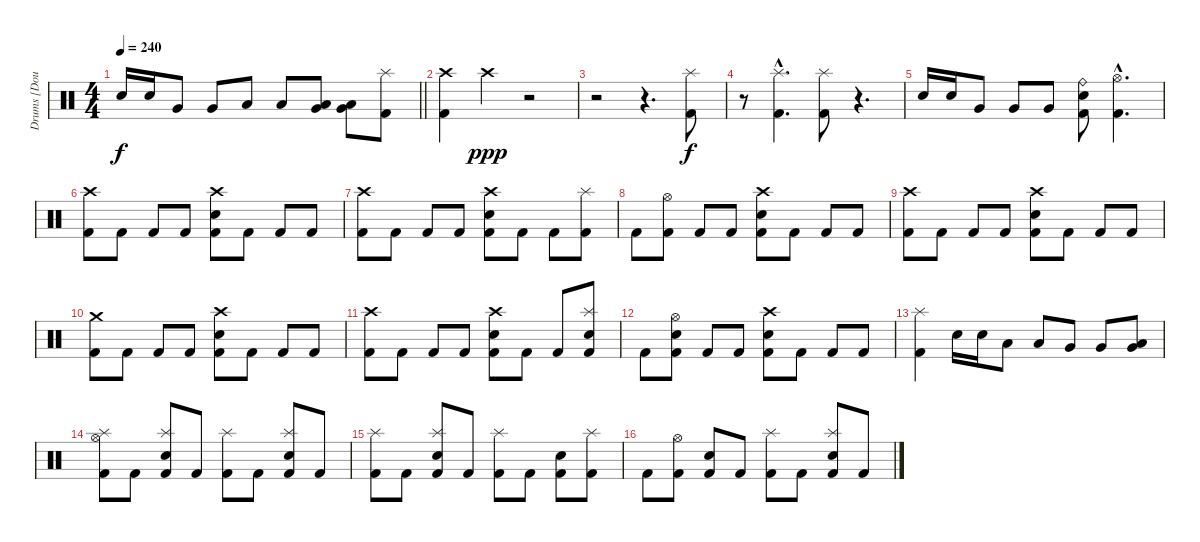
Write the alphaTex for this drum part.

\track ("Drums [Doug Anderson]" "Drums [Dou") {instrument percussion}
\staff {score}
\articulation defaults
\ts (4 4)
\tempo 240
\clef neutral
\barLineRight lightlight
\ks aminor "Electric Snare (hit)".16{dy f} "Electric Snare (hit)".16 "Very Low Tom (hit)".8 "Very Low Tom (hit)".8 "Low Tom (hit)".8 "Low Tom (hit)".8
("Very Low Tom (hit)" "Low Tom (hit)").8 ("Very Low Tom (hit)" "Low Tom (hit)").8 ("Splash (hit)" "Kick (hit) 2").8 |
("Crash high (hit)" "Kick (hit) 2").4 "Crash high (hit)".4{dy ppp} r.2 |
r.2 r.4{d} ("Splash (hit)" "Kick (hit) 2").8{dy f} |
r.8 ("Splash (hit)"{hac} "Kick (hit) 2"{hac}).4{d} ("Splash (hit)" "Kick (hit) 2").8 r.4{d} |
"Electric Snare (hit)".16 "Electric Snare (hit)".16 "Very Low Tom (hit)".8 "Very Low Tom (hit)".8 "Very Low Tom (hit)".8 ("Ride (bell)" "Electric Snare (hit)" "Kick (hit) 2").8 ("Hi-Hat (open)"{hac} "Kick (hit) 2"{hac}).4{d} |
("Crash high (hit)" "Kick (hit) 2").8 "Kick (hit) 2".8 "Kick (hit) 2".8 "Kick (hit) 2".8 ("Crash high (hit)" "Electric Snare (hit)" "Kick (hit) 2").8 "Kick (hit) 2".8 "Kick (hit) 2".8 "Kick (hit) 2".8 |
("Crash high (hit)" "Kick (hit) 2").8 "Kick (hit) 2".8 "Kick (hit) 2".8 "Kick (hit) 2".8 ("Crash high (hit)" "Electric Snare (hit)" "Kick (hit) 2").8 "Kick (hit) 2".8 "Kick (hit) 2".8 ("Splash (hit)" "Kick (hit) 2").8 |
"Kick (hit) 2".8 ("Hi-Hat (open)" "Kick (hit) 2").8 "Kick (hit) 2".8 "Kick (hit) 2".8 ("Crash high (hit)" "Electric Snare (hit)" "Kick (hit) 2").8 "Kick (hit) 2".8 "Kick (hit) 2".8 "Kick (hit) 2".8 |
("Crash high (hit)" "Kick (hit) 2").8 "Kick (hit) 2".8 "Kick (hit) 2".8 "Kick (hit) 2".8 ("Crash high (hit)" "Electric Snare (hit)" "Kick (hit) 2").8 "Kick (hit) 2".8 "Kick (hit) 2".8 "Kick (hit) 2".8 |
("Crash medium (hit)" "Kick (hit) 2").8 "Kick (hit) 2".8 "Kick (hit) 2".8 "Kick (hit) 2".8 ("Crash high (hit)" "Electric Snare (hit)" "Kick (hit) 2").8 "Kick (hit) 2".8 "Kick (hit) 2".8 "Kick (hit) 2".8 |
("Crash high (hit)" "Kick (hit) 2").8 "Kick (hit) 2".8 "Kick (hit) 2".8 "Kick (hit) 2".8 ("Crash high (hit)" "Electric Snare (hit)" "Kick (hit) 2").8 "Kick (hit) 2".8 "Kick (hit) 2".8 ("Splash (hit)" "Electric Snare (hit)" "Kick (hit) 2").8 |
"Kick (hit) 2".8 ("Hi-Hat (open)" "Electric Snare (hit)" "Kick (hit) 2").8 "Kick (hit) 2".8 "Kick (hit) 2".8 ("Crash high (hit)" "Electric Snare (hit)" "Kick (hit) 2").8 "Kick (hit) 2".8 "Kick (hit) 2".8 "Kick (hit) 2".8 |
("Splash (hit)" "Kick (hit) 2").4 "Electric Snare (hit)".16 "Electric Snare (hit)".16 "Low Tom (hit)".8 "Low Tom (hit)".8 "Very Low Tom (hit)".8 "Very Low Tom (hit)".8 ("Very Low Tom (hit)" "Low Floor Tom (hit)").8 |
("Splash (hit)" "Hi-Hat (open)" "Kick (hit) 2").8 "Kick (hit) 2".8 ("Splash (hit)" "Electric Snare (hit)" "Kick (hit) 2").8 "Kick (hit) 2".8 ("Splash (hit)" "Kick (hit) 2").8 "Kick (hit) 2".8 ("Splash (hit)" "Electric Snare (hit)" "Kick (hit) 2").8 "Kick (hit) 2".8 |
("Splash (hit)" "Kick (hit) 2").8 "Kick (hit) 2".8 ("Splash (hit)" "Electric Snare (hit)" "Kick (hit) 2").8 "Kick (hit) 2".8 ("Splash (hit)" "Kick (hit) 2").8 "Kick (hit) 2".8 ("Electric Snare (hit)" "Kick (hit) 2").8 ("Splash (hit)" "Kick (hit) 2").8 |
"Kick (hit) 2".8 ("Hi-Hat (open)" "Kick (hit) 2").8 ("Electric Snare (hit)" "Kick (hit) 2").8 "Kick (hit) 2".8 ("Splash (hit)" "Kick (hit) 2").8 "Kick (hit) 2".8 ("Splash (hit)" "Electric Snare (hit)" "Kick (hit) 2").8 "Kick (hit) 2".8
